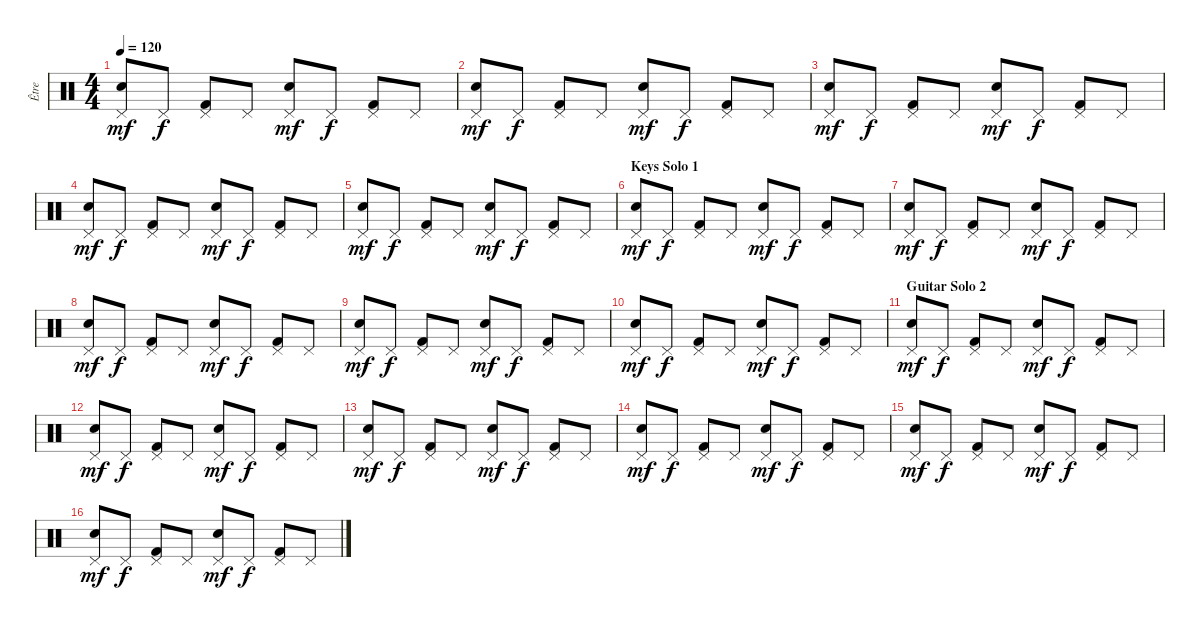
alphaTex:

\track ("Être" "Être") {instrument percussion}
\staff {score}
\articulation defaults
\ts (4 4)
\tempo 120
\clef neutral
\ks c
("Pedal Hi-Hat (hit)" "Electric Snare (hit)").8{dy mf} "Pedal Hi-Hat (hit)".8{dy f} ("Kick (hit) 2" "Pedal Hi-Hat (hit)").8 "Pedal Hi-Hat (hit)".8 ("Pedal Hi-Hat (hit)" "Electric Snare (hit)").8{dy mf} "Pedal Hi-Hat (hit)".8{dy f} ("Kick (hit) 2" "Pedal Hi-Hat (hit)").8 "Pedal Hi-Hat (hit)".8 |
("Pedal Hi-Hat (hit)" "Electric Snare (hit)").8{dy mf} "Pedal Hi-Hat (hit)".8{dy f} ("Kick (hit) 2" "Pedal Hi-Hat (hit)").8 "Pedal Hi-Hat (hit)".8 ("Pedal Hi-Hat (hit)" "Electric Snare (hit)").8{dy mf} "Pedal Hi-Hat (hit)".8{dy f} ("Kick (hit) 2" "Pedal Hi-Hat (hit)").8 "Pedal Hi-Hat (hit)".8 |
("Pedal Hi-Hat (hit)" "Electric Snare (hit)").8{dy mf} "Pedal Hi-Hat (hit)".8{dy f} ("Kick (hit) 2" "Pedal Hi-Hat (hit)").8 "Pedal Hi-Hat (hit)".8 ("Pedal Hi-Hat (hit)" "Electric Snare (hit)").8{dy mf} "Pedal Hi-Hat (hit)".8{dy f} ("Kick (hit) 2" "Pedal Hi-Hat (hit)").8 "Pedal Hi-Hat (hit)".8 |
("Pedal Hi-Hat (hit)" "Electric Snare (hit)").8{dy mf} "Pedal Hi-Hat (hit)".8{dy f} ("Kick (hit) 2" "Pedal Hi-Hat (hit)").8 "Pedal Hi-Hat (hit)".8 ("Pedal Hi-Hat (hit)" "Electric Snare (hit)").8{dy mf} "Pedal Hi-Hat (hit)".8{dy f} ("Kick (hit) 2" "Pedal Hi-Hat (hit)").8 "Pedal Hi-Hat (hit)".8 |
("Pedal Hi-Hat (hit)" "Electric Snare (hit)").8{dy mf} "Pedal Hi-Hat (hit)".8{dy f} ("Kick (hit) 2" "Pedal Hi-Hat (hit)").8 "Pedal Hi-Hat (hit)".8 ("Pedal Hi-Hat (hit)" "Electric Snare (hit)").8{dy mf} "Pedal Hi-Hat (hit)".8{dy f} ("Kick (hit) 2" "Pedal Hi-Hat (hit)").8 "Pedal Hi-Hat (hit)".8 |
\section ("" "Keys Solo 1")
("Pedal Hi-Hat (hit)" "Electric Snare (hit)").8{dy mf} "Pedal Hi-Hat (hit)".8{dy f} ("Kick (hit) 2" "Pedal Hi-Hat (hit)").8 "Pedal Hi-Hat (hit)".8 ("Pedal Hi-Hat (hit)" "Electric Snare (hit)").8{dy mf} "Pedal Hi-Hat (hit)".8{dy f} ("Kick (hit) 2" "Pedal Hi-Hat (hit)").8 "Pedal Hi-Hat (hit)".8 |
("Pedal Hi-Hat (hit)" "Electric Snare (hit)").8{dy mf} "Pedal Hi-Hat (hit)".8{dy f} ("Kick (hit) 2" "Pedal Hi-Hat (hit)").8 "Pedal Hi-Hat (hit)".8 ("Pedal Hi-Hat (hit)" "Electric Snare (hit)").8{dy mf} "Pedal Hi-Hat (hit)".8{dy f} ("Kick (hit) 2" "Pedal Hi-Hat (hit)").8 "Pedal Hi-Hat (hit)".8 |
("Pedal Hi-Hat (hit)" "Electric Snare (hit)").8{dy mf} "Pedal Hi-Hat (hit)".8{dy f} ("Kick (hit) 2" "Pedal Hi-Hat (hit)").8 "Pedal Hi-Hat (hit)".8 ("Pedal Hi-Hat (hit)" "Electric Snare (hit)").8{dy mf} "Pedal Hi-Hat (hit)".8{dy f} ("Kick (hit) 2" "Pedal Hi-Hat (hit)").8 "Pedal Hi-Hat (hit)".8 |
("Pedal Hi-Hat (hit)" "Electric Snare (hit)").8{dy mf} "Pedal Hi-Hat (hit)".8{dy f} ("Kick (hit) 2" "Pedal Hi-Hat (hit)").8 "Pedal Hi-Hat (hit)".8 ("Pedal Hi-Hat (hit)" "Electric Snare (hit)").8{dy mf} "Pedal Hi-Hat (hit)".8{dy f} ("Kick (hit) 2" "Pedal Hi-Hat (hit)").8 "Pedal Hi-Hat (hit)".8 |
("Pedal Hi-Hat (hit)" "Electric Snare (hit)").8{dy mf} "Pedal Hi-Hat (hit)".8{dy f} ("Kick (hit) 2" "Pedal Hi-Hat (hit)").8 "Pedal Hi-Hat (hit)".8 ("Pedal Hi-Hat (hit)" "Electric Snare (hit)").8{dy mf} "Pedal Hi-Hat (hit)".8{dy f} ("Kick (hit) 2" "Pedal Hi-Hat (hit)").8 "Pedal Hi-Hat (hit)".8 |
\section ("" "Guitar Solo 2")
("Pedal Hi-Hat (hit)" "Electric Snare (hit)").8{dy mf} "Pedal Hi-Hat (hit)".8{dy f} ("Kick (hit) 2" "Pedal Hi-Hat (hit)").8 "Pedal Hi-Hat (hit)".8 ("Pedal Hi-Hat (hit)" "Electric Snare (hit)").8{dy mf} "Pedal Hi-Hat (hit)".8{dy f} ("Kick (hit) 2" "Pedal Hi-Hat (hit)").8 "Pedal Hi-Hat (hit)".8 |
("Pedal Hi-Hat (hit)" "Electric Snare (hit)").8{dy mf} "Pedal Hi-Hat (hit)".8{dy f} ("Kick (hit) 2" "Pedal Hi-Hat (hit)").8 "Pedal Hi-Hat (hit)".8 ("Pedal Hi-Hat (hit)" "Electric Snare (hit)").8{dy mf} "Pedal Hi-Hat (hit)".8{dy f} ("Kick (hit) 2" "Pedal Hi-Hat (hit)").8 "Pedal Hi-Hat (hit)".8 |
("Pedal Hi-Hat (hit)" "Electric Snare (hit)").8{dy mf} "Pedal Hi-Hat (hit)".8{dy f} ("Kick (hit) 2" "Pedal Hi-Hat (hit)").8 "Pedal Hi-Hat (hit)".8 ("Pedal Hi-Hat (hit)" "Electric Snare (hit)").8{dy mf} "Pedal Hi-Hat (hit)".8{dy f} ("Kick (hit) 2" "Pedal Hi-Hat (hit)").8 "Pedal Hi-Hat (hit)".8 |
("Pedal Hi-Hat (hit)" "Electric Snare (hit)").8{dy mf} "Pedal Hi-Hat (hit)".8{dy f} ("Kick (hit) 2" "Pedal Hi-Hat (hit)").8 "Pedal Hi-Hat (hit)".8 ("Pedal Hi-Hat (hit)" "Electric Snare (hit)").8{dy mf} "Pedal Hi-Hat (hit)".8{dy f} ("Kick (hit) 2" "Pedal Hi-Hat (hit)").8 "Pedal Hi-Hat (hit)".8 |
("Pedal Hi-Hat (hit)" "Electric Snare (hit)").8{dy mf} "Pedal Hi-Hat (hit)".8{dy f} ("Kick (hit) 2" "Pedal Hi-Hat (hit)").8 "Pedal Hi-Hat (hit)".8 ("Pedal Hi-Hat (hit)" "Electric Snare (hit)").8{dy mf} "Pedal Hi-Hat (hit)".8{dy f} ("Kick (hit) 2" "Pedal Hi-Hat (hit)").8 "Pedal Hi-Hat (hit)".8 |
("Pedal Hi-Hat (hit)" "Electric Snare (hit)").8{dy mf} "Pedal Hi-Hat (hit)".8{dy f} ("Kick (hit) 2" "Pedal Hi-Hat (hit)").8 "Pedal Hi-Hat (hit)".8 ("Pedal Hi-Hat (hit)" "Electric Snare (hit)").8{dy mf} "Pedal Hi-Hat (hit)".8{dy f} ("Kick (hit) 2" "Pedal Hi-Hat (hit)").8 "Pedal Hi-Hat (hit)".8
